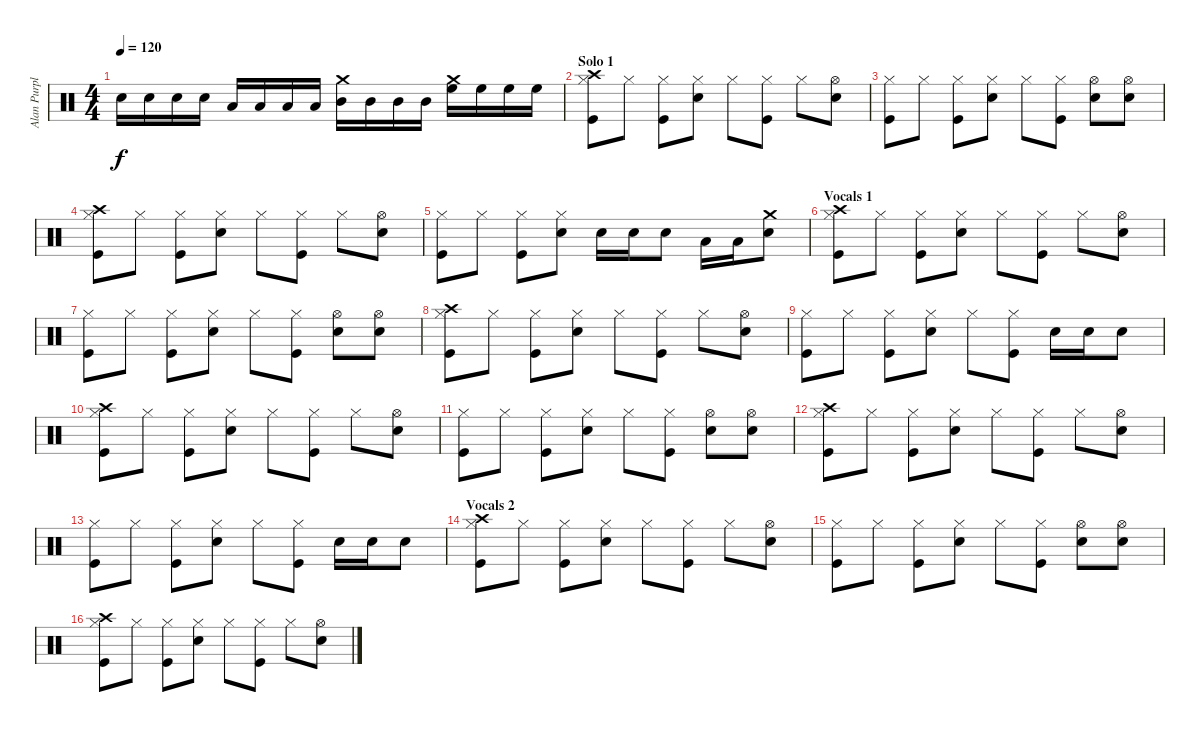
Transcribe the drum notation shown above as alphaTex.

\track ("Alan Purple" "Alan Purpl") {instrument percussion}
\staff {score}
\articulation defaults
\ts (4 4)
\tempo 120
\clef neutral
\ks c "Electric Snare (hit)".16{dy f} "Electric Snare (hit)".16 "Electric Snare (hit)".16 "Electric Snare (hit)".16 "Low Tom (hit)".16 "Low Tom (hit)".16 "Low Tom (hit)".16 "Low Tom (hit)".16
("Crash medium (hit)" "Mid Tom (hit)").16 "Mid Tom (hit)".16 "Mid Tom (hit)".16 "Mid Tom (hit)".16 ("Crash medium (hit)" "High Floor Tom (hit)").16 "High Floor Tom (hit)".16 "High Floor Tom (hit)".16 "High Floor Tom (hit)".16 |
\section ("" "Solo 1")
("Crash high (hit)" "Hi-Hat (closed)" "Kick (hit)").8 "Hi-Hat (closed)".8 ("Hi-Hat (closed)" "Kick (hit)").8 ("Hi-Hat (closed)" "Snare (hit) 2").8 "Hi-Hat (closed)".8 ("Hi-Hat (closed)" "Kick (hit)").8 "Hi-Hat (closed)".8 ("Hi-Hat (open)" "Snare (hit) 2").8 |
("Hi-Hat (closed)" "Kick (hit)").8 "Hi-Hat (closed)".8 ("Hi-Hat (closed)" "Kick (hit)").8 ("Hi-Hat (closed)" "Snare (hit) 2").8 "Hi-Hat (closed)".8 ("Hi-Hat (closed)" "Kick (hit)").8 ("Hi-Hat (open)" "Electric Snare (hit)").8 ("Hi-Hat (open)" "Snare (hit) 2").8 |
("Crash high (hit)" "Hi-Hat (closed)" "Kick (hit)").8 "Hi-Hat (closed)".8 ("Hi-Hat (closed)" "Kick (hit)").8 ("Hi-Hat (closed)" "Snare (hit) 2").8 "Hi-Hat (closed)".8 ("Hi-Hat (closed)" "Kick (hit)").8 "Hi-Hat (closed)".8 ("Hi-Hat (open)" "Snare (hit) 2").8 |
("Hi-Hat (closed)" "Kick (hit)").8 "Hi-Hat (closed)".8 ("Hi-Hat (closed)" "Kick (hit)").8 ("Hi-Hat (closed)" "Snare (hit) 2").8 "Electric Snare (hit)".16 "Electric Snare (hit)".16 "Snare (hit) 2".8 "Low Tom (hit)".16 "Low Tom (hit)".16 ("Crash medium (hit)" "Electric Snare (hit)").8 |
\section ("" "Vocals 1")
("Crash high (hit)" "Hi-Hat (closed)" "Kick (hit)").8 "Hi-Hat (closed)".8 ("Hi-Hat (closed)" "Kick (hit)").8 ("Hi-Hat (closed)" "Snare (hit) 2").8 "Hi-Hat (closed)".8 ("Hi-Hat (closed)" "Kick (hit)").8 "Hi-Hat (closed)".8 ("Hi-Hat (open)" "Snare (hit) 2").8 |
("Hi-Hat (closed)" "Kick (hit)").8 "Hi-Hat (closed)".8 ("Hi-Hat (closed)" "Kick (hit)").8 ("Hi-Hat (closed)" "Snare (hit) 2").8 "Hi-Hat (closed)".8 ("Hi-Hat (closed)" "Kick (hit)").8 ("Hi-Hat (open)" "Electric Snare (hit)").8 ("Hi-Hat (open)" "Snare (hit) 2").8 |
("Crash high (hit)" "Hi-Hat (closed)" "Kick (hit)").8 "Hi-Hat (closed)".8 ("Hi-Hat (closed)" "Kick (hit)").8 ("Hi-Hat (closed)" "Snare (hit) 2").8 "Hi-Hat (closed)".8 ("Hi-Hat (closed)" "Kick (hit)").8 "Hi-Hat (closed)".8 ("Hi-Hat (open)" "Snare (hit) 2").8 |
("Hi-Hat (closed)" "Kick (hit)").8 "Hi-Hat (closed)".8 ("Hi-Hat (closed)" "Kick (hit)").8 ("Hi-Hat (closed)" "Snare (hit) 2").8 "Hi-Hat (closed)".8 ("Hi-Hat (closed)" "Kick (hit)").8 "Electric Snare (hit)".16 "Electric Snare (hit)".16 "Electric Snare (hit)".8 |
("Crash high (hit)" "Hi-Hat (closed)" "Kick (hit)").8 "Hi-Hat (closed)".8 ("Hi-Hat (closed)" "Kick (hit)").8 ("Hi-Hat (closed)" "Snare (hit) 2").8 "Hi-Hat (closed)".8 ("Hi-Hat (closed)" "Kick (hit)").8 "Hi-Hat (closed)".8 ("Hi-Hat (open)" "Snare (hit) 2").8 |
("Hi-Hat (closed)" "Kick (hit)").8 "Hi-Hat (closed)".8 ("Hi-Hat (closed)" "Kick (hit)").8 ("Hi-Hat (closed)" "Snare (hit) 2").8 "Hi-Hat (closed)".8 ("Hi-Hat (closed)" "Kick (hit)").8 ("Hi-Hat (open)" "Electric Snare (hit)").8 ("Hi-Hat (open)" "Snare (hit) 2").8 |
("Crash high (hit)" "Hi-Hat (closed)" "Kick (hit)").8 "Hi-Hat (closed)".8 ("Hi-Hat (closed)" "Kick (hit)").8 ("Hi-Hat (closed)" "Snare (hit) 2").8 "Hi-Hat (closed)".8 ("Hi-Hat (closed)" "Kick (hit)").8 "Hi-Hat (closed)".8 ("Hi-Hat (open)" "Snare (hit) 2").8 |
("Hi-Hat (closed)" "Kick (hit)").8 "Hi-Hat (closed)".8 ("Hi-Hat (closed)" "Kick (hit)").8 ("Hi-Hat (closed)" "Snare (hit) 2").8 "Hi-Hat (closed)".8 ("Hi-Hat (closed)" "Kick (hit)").8 "Electric Snare (hit)".16 "Electric Snare (hit)".16 "Electric Snare (hit)".8 |
\section ("" "Vocals 2")
("Crash high (hit)" "Hi-Hat (closed)" "Kick (hit)").8 "Hi-Hat (closed)".8 ("Hi-Hat (closed)" "Kick (hit)").8 ("Hi-Hat (closed)" "Snare (hit) 2").8 "Hi-Hat (closed)".8 ("Hi-Hat (closed)" "Kick (hit)").8 "Hi-Hat (closed)".8 ("Hi-Hat (open)" "Snare (hit) 2").8 |
("Hi-Hat (closed)" "Kick (hit)").8 "Hi-Hat (closed)".8 ("Hi-Hat (closed)" "Kick (hit)").8 ("Hi-Hat (closed)" "Snare (hit) 2").8 "Hi-Hat (closed)".8 ("Hi-Hat (closed)" "Kick (hit)").8 ("Hi-Hat (open)" "Electric Snare (hit)").8 ("Hi-Hat (open)" "Snare (hit) 2").8 |
("Crash high (hit)" "Hi-Hat (closed)" "Kick (hit)").8 "Hi-Hat (closed)".8 ("Hi-Hat (closed)" "Kick (hit)").8 ("Hi-Hat (closed)" "Snare (hit) 2").8 "Hi-Hat (closed)".8 ("Hi-Hat (closed)" "Kick (hit)").8 "Hi-Hat (closed)".8 ("Hi-Hat (open)" "Snare (hit) 2").8
